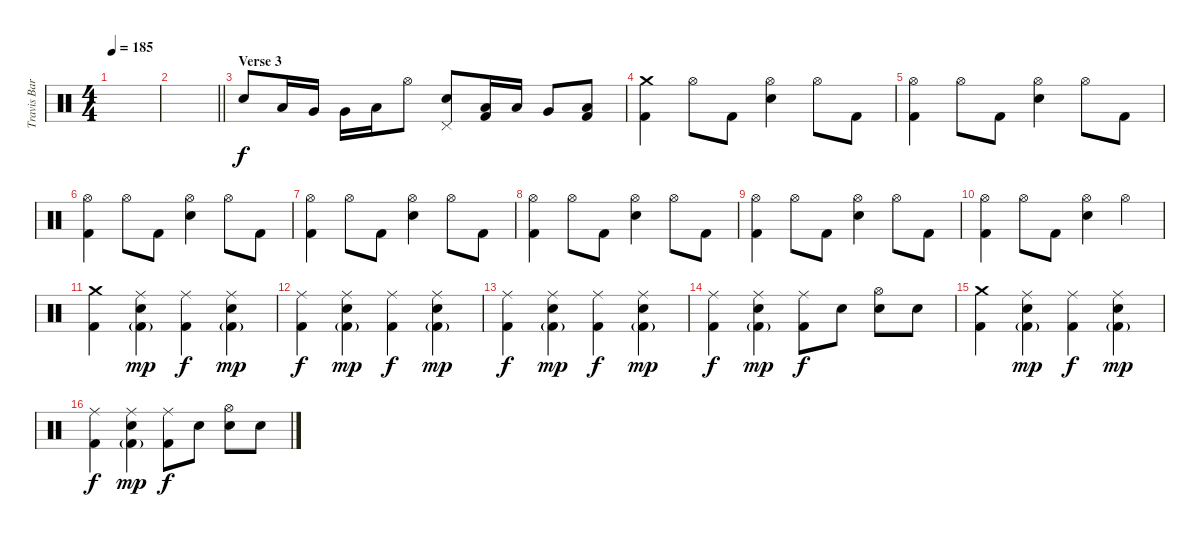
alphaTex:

\track ("Travis Barker - Drums" "Travis Bar") {instrument percussion}
\staff {score}
\articulation defaults
\ts (4 4)
\tempo 185
\clef neutral
\ks c
|
\barLineRight lightlight
|
\section ("" "Verse 3")
"Electric Snare (hit)".8 "Low Tom (hit)".16 "Very Low Tom (hit)".16 "Very Low Tom (hit)".16 "Low Floor Tom (hit)".16 "Hi-Hat (open)".8 ("Pedal Hi-Hat (hit)" "Electric Snare (hit)").8 ("Low Tom (hit)" "Kick (hit) 2").16 "Low Tom (hit)".16 "Very Low Tom (hit)".8 ("Low Floor Tom (hit)" "Kick (hit) 2").8 |
("Crash medium (hit)" "Kick (hit) 2").4 "Hi-Hat (open)".8 "Kick (hit) 2".8 ("Hi-Hat (open)" "Electric Snare (hit)").4 "Hi-Hat (open)".8 "Kick (hit) 2".8 |
("Hi-Hat (open)" "Kick (hit) 2").4 "Hi-Hat (open)".8 "Kick (hit) 2".8 ("Hi-Hat (open)" "Electric Snare (hit)").4 "Hi-Hat (open)".8 "Kick (hit) 2".8 |
("Hi-Hat (open)" "Kick (hit) 2").4 "Hi-Hat (open)".8 "Kick (hit) 2".8 ("Hi-Hat (open)" "Electric Snare (hit)").4 "Hi-Hat (open)".8 "Kick (hit) 2".8 |
("Hi-Hat (open)" "Kick (hit) 2").4 "Hi-Hat (open)".8 "Kick (hit) 2".8 ("Hi-Hat (open)" "Electric Snare (hit)").4 "Hi-Hat (open)".8 "Kick (hit) 2".8 |
("Hi-Hat (open)" "Kick (hit) 2").4 "Hi-Hat (open)".8 "Kick (hit) 2".8 ("Hi-Hat (open)" "Electric Snare (hit)").4 "Hi-Hat (open)".8 "Kick (hit) 2".8 |
("Hi-Hat (open)" "Kick (hit) 2").4 "Hi-Hat (open)".8 "Kick (hit) 2".8 ("Hi-Hat (open)" "Electric Snare (hit)").4 "Hi-Hat (open)".8 "Kick (hit) 2".8 |
("Hi-Hat (open)" "Kick (hit) 2").4 "Hi-Hat (open)".8 "Kick (hit) 2".8 ("Hi-Hat (open)" "Electric Snare (hit)").4 "Hi-Hat (open)".4 |
("Crash medium (hit)" "Kick (hit) 2").4 ("Ride (middle)" "Electric Snare (hit)" "Kick (hit) 2"{g}).4{dy mp} ("Ride (middle)" "Kick (hit) 2").4{dy f} ("Ride (middle)" "Electric Snare (hit)" "Kick (hit) 2"{g}).4{dy mp} |
("Ride (middle)" "Kick (hit) 2").4{dy f} ("Ride (middle)" "Electric Snare (hit)" "Kick (hit) 2"{g}).4{dy mp} ("Ride (middle)" "Kick (hit) 2").4{dy f} ("Ride (middle)" "Electric Snare (hit)" "Kick (hit) 2"{g}).4{dy mp} |
("Ride (middle)" "Kick (hit) 2").4{dy f} ("Ride (middle)" "Electric Snare (hit)" "Kick (hit) 2"{g}).4{dy mp} ("Ride (middle)" "Kick (hit) 2").4{dy f} ("Ride (middle)" "Electric Snare (hit)" "Kick (hit) 2"{g}).4{dy mp} |
("Ride (middle)" "Kick (hit) 2").4{dy f} ("Ride (middle)" "Electric Snare (hit)" "Kick (hit) 2"{g}).4{dy mp} ("Ride (middle)" "Kick (hit) 2").8{dy f} "Electric Snare (hit)".8 ("Hi-Hat (open)" "Electric Snare (hit)").8 "Electric Snare (hit)".8 |
("Crash medium (hit)" "Kick (hit) 2").4 ("Ride (middle)" "Electric Snare (hit)" "Kick (hit) 2"{g}).4{dy mp} ("Ride (middle)" "Kick (hit) 2").4{dy f} ("Ride (middle)" "Electric Snare (hit)" "Kick (hit) 2"{g}).4{dy mp} |
("Ride (middle)" "Kick (hit) 2").4{dy f} ("Ride (middle)" "Electric Snare (hit)" "Kick (hit) 2"{g}).4{dy mp} ("Ride (middle)" "Kick (hit) 2").8{dy f} "Electric Snare (hit)".8 ("Hi-Hat (open)" "Electric Snare (hit)").8 "Electric Snare (hit)".8
